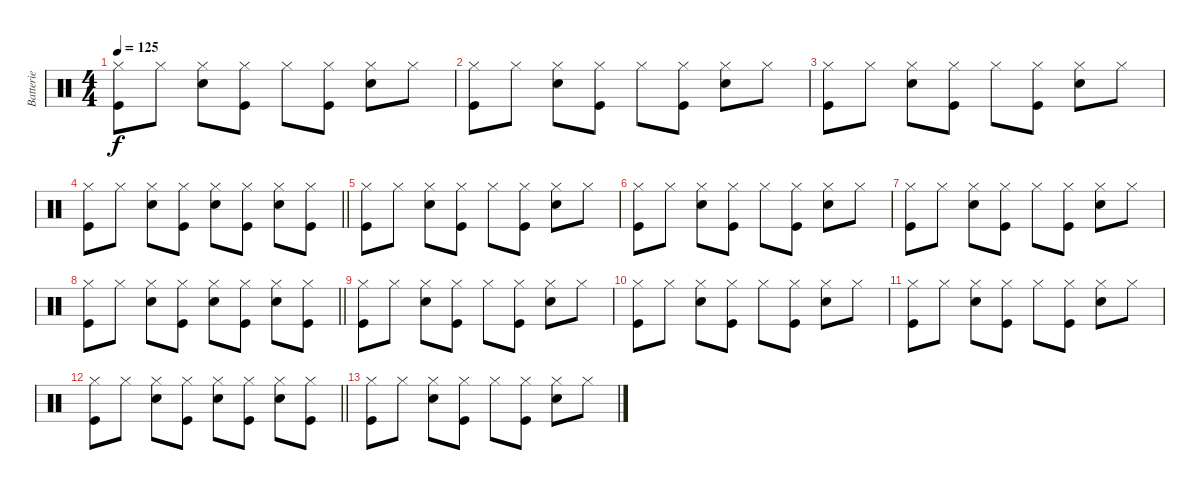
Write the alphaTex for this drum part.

\track ("Batterie" "Batterie") {instrument percussion}
\staff {score}
\articulation defaults
\ts (4 4)
\tempo 125
\clef neutral
\ks c
("Hi-Hat (closed)" "Kick (hit)").8{dy f} "Hi-Hat (closed)".8 ("Hi-Hat (closed)" "Snare (hit) 2").8 ("Hi-Hat (closed)" "Kick (hit)").8 "Hi-Hat (closed)".8 ("Hi-Hat (closed)" "Kick (hit)").8 ("Hi-Hat (closed)" "Snare (hit) 2").8 "Hi-Hat (closed)".8 |
("Hi-Hat (closed)" "Kick (hit)").8 "Hi-Hat (closed)".8 ("Hi-Hat (closed)" "Snare (hit) 2").8 ("Hi-Hat (closed)" "Kick (hit)").8 "Hi-Hat (closed)".8 ("Hi-Hat (closed)" "Kick (hit)").8 ("Hi-Hat (closed)" "Snare (hit) 2").8 "Hi-Hat (closed)".8 |
("Hi-Hat (closed)" "Kick (hit)").8 "Hi-Hat (closed)".8 ("Hi-Hat (closed)" "Snare (hit) 2").8 ("Hi-Hat (closed)" "Kick (hit)").8 "Hi-Hat (closed)".8 ("Hi-Hat (closed)" "Kick (hit)").8 ("Hi-Hat (closed)" "Snare (hit) 2").8 "Hi-Hat (closed)".8 |
\barLineRight lightlight
("Hi-Hat (closed)" "Kick (hit)").8 "Hi-Hat (closed)".8 ("Hi-Hat (closed)" "Snare (hit) 2").8 ("Hi-Hat (closed)" "Kick (hit)").8 ("Hi-Hat (closed)" "Snare (hit) 2").8 ("Hi-Hat (closed)" "Kick (hit)").8 ("Hi-Hat (closed)" "Snare (hit) 2").8 ("Hi-Hat (closed)" "Kick (hit)").8 |
("Hi-Hat (closed)" "Kick (hit)").8 "Hi-Hat (closed)".8 ("Hi-Hat (closed)" "Snare (hit) 2").8 ("Hi-Hat (closed)" "Kick (hit)").8 "Hi-Hat (closed)".8 ("Hi-Hat (closed)" "Kick (hit)").8 ("Hi-Hat (closed)" "Snare (hit) 2").8 "Hi-Hat (closed)".8 |
("Hi-Hat (closed)" "Kick (hit)").8 "Hi-Hat (closed)".8 ("Hi-Hat (closed)" "Snare (hit) 2").8 ("Hi-Hat (closed)" "Kick (hit)").8 "Hi-Hat (closed)".8 ("Hi-Hat (closed)" "Kick (hit)").8 ("Hi-Hat (closed)" "Snare (hit) 2").8 "Hi-Hat (closed)".8 |
("Hi-Hat (closed)" "Kick (hit)").8 "Hi-Hat (closed)".8 ("Hi-Hat (closed)" "Snare (hit) 2").8 ("Hi-Hat (closed)" "Kick (hit)").8 "Hi-Hat (closed)".8 ("Hi-Hat (closed)" "Kick (hit)").8 ("Hi-Hat (closed)" "Snare (hit) 2").8 "Hi-Hat (closed)".8 |
\barLineRight lightlight
("Hi-Hat (closed)" "Kick (hit)").8 "Hi-Hat (closed)".8 ("Hi-Hat (closed)" "Snare (hit) 2").8 ("Hi-Hat (closed)" "Kick (hit)").8 ("Hi-Hat (closed)" "Snare (hit) 2").8 ("Hi-Hat (closed)" "Kick (hit)").8 ("Hi-Hat (closed)" "Snare (hit) 2").8 ("Hi-Hat (closed)" "Kick (hit)").8 |
("Hi-Hat (closed)" "Kick (hit)").8 "Hi-Hat (closed)".8 ("Hi-Hat (closed)" "Snare (hit) 2").8 ("Hi-Hat (closed)" "Kick (hit)").8 "Hi-Hat (closed)".8 ("Hi-Hat (closed)" "Kick (hit)").8 ("Hi-Hat (closed)" "Snare (hit) 2").8 "Hi-Hat (closed)".8 |
("Hi-Hat (closed)" "Kick (hit)").8 "Hi-Hat (closed)".8 ("Hi-Hat (closed)" "Snare (hit) 2").8 ("Hi-Hat (closed)" "Kick (hit)").8 "Hi-Hat (closed)".8 ("Hi-Hat (closed)" "Kick (hit)").8 ("Hi-Hat (closed)" "Snare (hit) 2").8 "Hi-Hat (closed)".8 |
("Hi-Hat (closed)" "Kick (hit)").8 "Hi-Hat (closed)".8 ("Hi-Hat (closed)" "Snare (hit) 2").8 ("Hi-Hat (closed)" "Kick (hit)").8 "Hi-Hat (closed)".8 ("Hi-Hat (closed)" "Kick (hit)").8 ("Hi-Hat (closed)" "Snare (hit) 2").8 "Hi-Hat (closed)".8 |
\barLineRight lightlight
("Hi-Hat (closed)" "Kick (hit)").8 "Hi-Hat (closed)".8 ("Hi-Hat (closed)" "Snare (hit) 2").8 ("Hi-Hat (closed)" "Kick (hit)").8 ("Hi-Hat (closed)" "Snare (hit) 2").8 ("Hi-Hat (closed)" "Kick (hit)").8 ("Hi-Hat (closed)" "Snare (hit) 2").8 ("Hi-Hat (closed)" "Kick (hit)").8 |
("Hi-Hat (closed)" "Kick (hit)").8 "Hi-Hat (closed)".8 ("Hi-Hat (closed)" "Snare (hit) 2").8 ("Hi-Hat (closed)" "Kick (hit)").8 "Hi-Hat (closed)".8 ("Hi-Hat (closed)" "Kick (hit)").8 ("Hi-Hat (closed)" "Snare (hit) 2").8 "Hi-Hat (closed)".8
